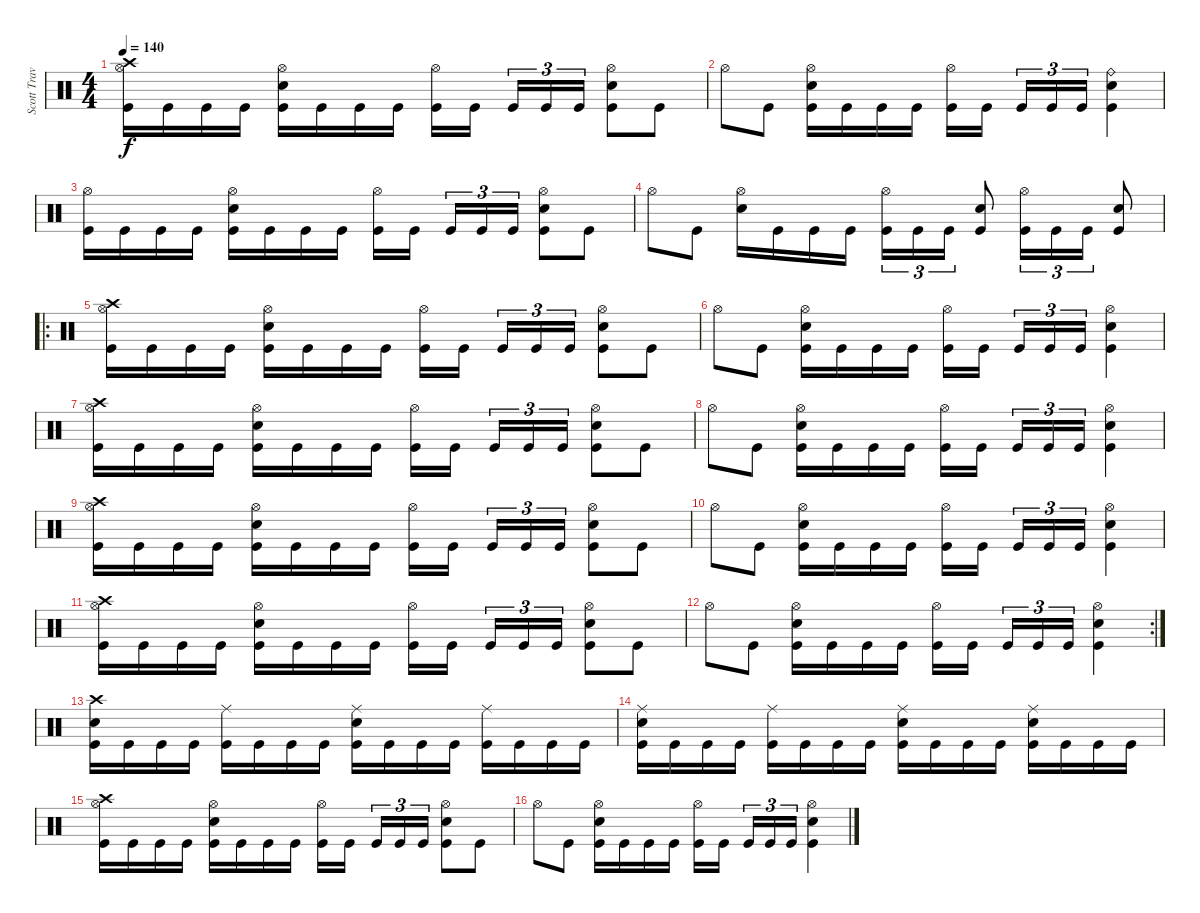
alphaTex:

\track ("Scott Travis" "Scott Trav") {instrument percussion}
\staff {score}
\articulation defaults
\ts (4 4)
\tempo 140
\clef neutral
\ks c
("Hi-Hat (open)" "Crash high (hit)" "Kick (hit)").16{dy f} "Kick (hit)".16 "Kick (hit)".16 "Kick (hit)".16 ("Hi-Hat (open)" "Snare (hit) 2" "Kick (hit)").16 "Kick (hit)".16 "Kick (hit)".16 "Kick (hit)".16 ("Hi-Hat (open)" "Kick (hit)").16 "Kick (hit)".16{beam splitsecondary} "Kick (hit)".16{tu (3 2)} "Kick (hit)".16{tu (3 2)} "Kick (hit)".16{tu (3 2)} ("Hi-Hat (open)" "Snare (hit) 2" "Kick (hit)").8 "Kick (hit)".8 |
"Hi-Hat (open)".8 "Kick (hit)".8 ("Hi-Hat (open)" "Snare (hit) 2" "Kick (hit)").16 "Kick (hit)".16 "Kick (hit)".16 "Kick (hit)".16 ("Hi-Hat (open)" "Kick (hit)").16 "Kick (hit)".16{beam splitsecondary} "Kick (hit)".16{tu (3 2)} "Kick (hit)".16{tu (3 2)} "Kick (hit)".16{tu (3 2)} ("Ride (bell)" "Snare (hit) 2" "Kick (hit)").4 |
("Hi-Hat (open)" "Kick (hit)").16 "Kick (hit)".16 "Kick (hit)".16 "Kick (hit)".16 ("Hi-Hat (open)" "Snare (hit) 2" "Kick (hit)").16 "Kick (hit)".16 "Kick (hit)".16 "Kick (hit)".16 ("Hi-Hat (open)" "Kick (hit)").16 "Kick (hit)".16{beam splitsecondary} "Kick (hit)".16{tu (3 2)} "Kick (hit)".16{tu (3 2)} "Kick (hit)".16{tu (3 2)} ("Hi-Hat (open)" "Snare (hit) 2" "Kick (hit)").8 "Kick (hit)".8 |
"Hi-Hat (open)".8 "Kick (hit)".8 ("Hi-Hat (open)" "Snare (hit) 2").16 "Kick (hit)".16 "Kick (hit)".16 "Kick (hit)".16 ("Hi-Hat (open)" "Kick (hit)").16{tu (3 2)} "Kick (hit)".16{tu (3 2)} "Kick (hit)".16{tu (3 2)} ("Snare (hit) 2" "Kick (hit)").8 ("Hi-Hat (open)" "Kick (hit)").16{tu (3 2)} "Kick (hit)".16{tu (3 2)} "Kick (hit)".16{tu (3 2)} ("Snare (hit) 2" "Kick (hit)").8 |
\ro
("Hi-Hat (open)" "Crash high (hit)" "Kick (hit)").16 "Kick (hit)".16 "Kick (hit)".16 "Kick (hit)".16 ("Hi-Hat (open)" "Snare (hit) 2" "Kick (hit)").16 "Kick (hit)".16 "Kick (hit)".16 "Kick (hit)".16 ("Hi-Hat (open)" "Kick (hit)").16 "Kick (hit)".16{beam splitsecondary} "Kick (hit)".16{tu (3 2)} "Kick (hit)".16{tu (3 2)} "Kick (hit)".16{tu (3 2)} ("Hi-Hat (open)" "Snare (hit) 2" "Kick (hit)").8 "Kick (hit)".8 |
"Hi-Hat (open)".8 "Kick (hit)".8 ("Hi-Hat (open)" "Snare (hit) 2" "Kick (hit)").16 "Kick (hit)".16 "Kick (hit)".16 "Kick (hit)".16 ("Hi-Hat (open)" "Kick (hit)").16 "Kick (hit)".16{beam splitsecondary} "Kick (hit)".16{tu (3 2)} "Kick (hit)".16{tu (3 2)} "Kick (hit)".16{tu (3 2)} ("Hi-Hat (open)" "Snare (hit) 2" "Kick (hit)").4 |
("Hi-Hat (open)" "Crash high (hit)" "Kick (hit)").16 "Kick (hit)".16 "Kick (hit)".16 "Kick (hit)".16 ("Hi-Hat (open)" "Snare (hit) 2" "Kick (hit)").16 "Kick (hit)".16 "Kick (hit)".16 "Kick (hit)".16 ("Hi-Hat (open)" "Kick (hit)").16 "Kick (hit)".16{beam splitsecondary} "Kick (hit)".16{tu (3 2)} "Kick (hit)".16{tu (3 2)} "Kick (hit)".16{tu (3 2)} ("Hi-Hat (open)" "Snare (hit) 2" "Kick (hit)").8 "Kick (hit)".8 |
"Hi-Hat (open)".8 "Kick (hit)".8 ("Hi-Hat (open)" "Snare (hit) 2" "Kick (hit)").16 "Kick (hit)".16 "Kick (hit)".16 "Kick (hit)".16 ("Hi-Hat (open)" "Kick (hit)").16 "Kick (hit)".16{beam splitsecondary} "Kick (hit)".16{tu (3 2)} "Kick (hit)".16{tu (3 2)} "Kick (hit)".16{tu (3 2)} ("Hi-Hat (open)" "Snare (hit) 2" "Kick (hit)").4 |
("Hi-Hat (open)" "Crash high (hit)" "Kick (hit)").16 "Kick (hit)".16 "Kick (hit)".16 "Kick (hit)".16 ("Hi-Hat (open)" "Snare (hit) 2" "Kick (hit)").16 "Kick (hit)".16 "Kick (hit)".16 "Kick (hit)".16 ("Hi-Hat (open)" "Kick (hit)").16 "Kick (hit)".16{beam splitsecondary} "Kick (hit)".16{tu (3 2)} "Kick (hit)".16{tu (3 2)} "Kick (hit)".16{tu (3 2)} ("Hi-Hat (open)" "Snare (hit) 2" "Kick (hit)").8 "Kick (hit)".8 |
"Hi-Hat (open)".8 "Kick (hit)".8 ("Hi-Hat (open)" "Snare (hit) 2" "Kick (hit)").16 "Kick (hit)".16 "Kick (hit)".16 "Kick (hit)".16 ("Hi-Hat (open)" "Kick (hit)").16 "Kick (hit)".16{beam splitsecondary} "Kick (hit)".16{tu (3 2)} "Kick (hit)".16{tu (3 2)} "Kick (hit)".16{tu (3 2)} ("Hi-Hat (open)" "Snare (hit) 2" "Kick (hit)").4 |
("Hi-Hat (open)" "Crash high (hit)" "Kick (hit)").16 "Kick (hit)".16 "Kick (hit)".16 "Kick (hit)".16 ("Hi-Hat (open)" "Snare (hit) 2" "Kick (hit)").16 "Kick (hit)".16 "Kick (hit)".16 "Kick (hit)".16 ("Hi-Hat (open)" "Kick (hit)").16 "Kick (hit)".16{beam splitsecondary} "Kick (hit)".16{tu (3 2)} "Kick (hit)".16{tu (3 2)} "Kick (hit)".16{tu (3 2)} ("Hi-Hat (open)" "Snare (hit) 2" "Kick (hit)").8 "Kick (hit)".8 |
\rc 2 "Hi-Hat (open)".8 "Kick (hit)".8
("Hi-Hat (open)" "Snare (hit) 2" "Kick (hit)").16 "Kick (hit)".16 "Kick (hit)".16 "Kick (hit)".16 ("Hi-Hat (open)" "Kick (hit)").16 "Kick (hit)".16{beam splitsecondary} "Kick (hit)".16{tu (3 2)} "Kick (hit)".16{tu (3 2)} "Kick (hit)".16{tu (3 2)} ("Hi-Hat (open)" "Snare (hit) 2" "Kick (hit)").4 |
("Crash high (hit)" "Snare (hit) 2" "Kick (hit)").16 "Kick (hit)".16 "Kick (hit)".16 "Kick (hit)".16 ("Ride (middle)" "Kick (hit)").16 "Kick (hit)".16 "Kick (hit)".16 "Kick (hit)".16 ("Ride (middle)" "Snare (hit) 2" "Kick (hit)").16 "Kick (hit)".16 "Kick (hit)".16 "Kick (hit)".16 ("Ride (middle)" "Kick (hit)").16 "Kick (hit)".16 "Kick (hit)".16 "Kick (hit)".16 |
("Ride (middle)" "Snare (hit) 2" "Kick (hit)").16 "Kick (hit)".16 "Kick (hit)".16 "Kick (hit)".16 ("Ride (middle)" "Kick (hit)").16 "Kick (hit)".16 "Kick (hit)".16 "Kick (hit)".16 ("Ride (middle)" "Snare (hit) 2" "Kick (hit)").16 "Kick (hit)".16 "Kick (hit)".16 "Kick (hit)".16 ("Ride (middle)" "Snare (hit) 2" "Kick (hit)").16 "Kick (hit)".16 "Kick (hit)".16 "Kick (hit)".16 |
("Hi-Hat (open)" "Crash high (hit)" "Kick (hit)").16 "Kick (hit)".16 "Kick (hit)".16 "Kick (hit)".16 ("Hi-Hat (open)" "Snare (hit) 2" "Kick (hit)").16 "Kick (hit)".16 "Kick (hit)".16 "Kick (hit)".16 ("Hi-Hat (open)" "Kick (hit)").16 "Kick (hit)".16{beam splitsecondary} "Kick (hit)".16{tu (3 2)} "Kick (hit)".16{tu (3 2)} "Kick (hit)".16{tu (3 2)} ("Hi-Hat (open)" "Snare (hit) 2" "Kick (hit)").8 "Kick (hit)".8 |
"Hi-Hat (open)".8 "Kick (hit)".8 ("Hi-Hat (open)" "Snare (hit) 2" "Kick (hit)").16 "Kick (hit)".16 "Kick (hit)".16 "Kick (hit)".16 ("Hi-Hat (open)" "Kick (hit)").16 "Kick (hit)".16{beam splitsecondary} "Kick (hit)".16{tu (3 2)} "Kick (hit)".16{tu (3 2)} "Kick (hit)".16{tu (3 2)} ("Hi-Hat (open)" "Snare (hit) 2" "Kick (hit)").4
